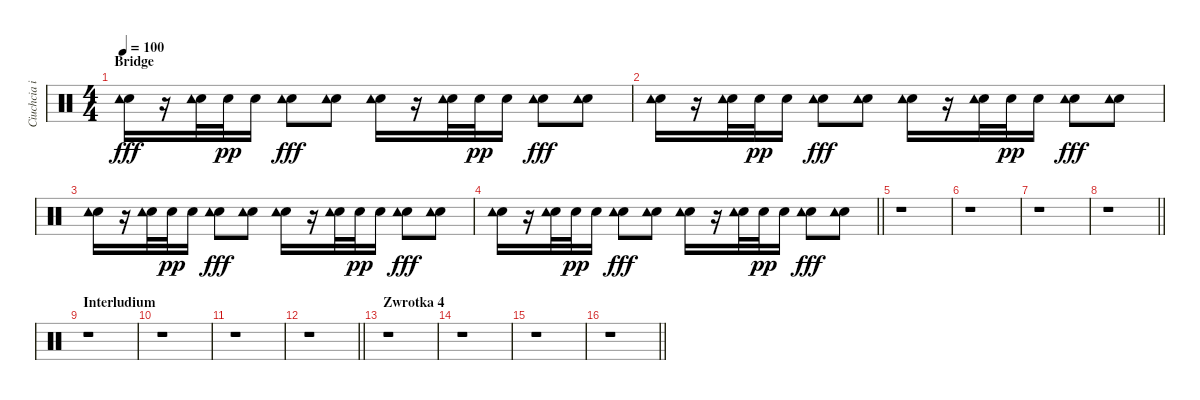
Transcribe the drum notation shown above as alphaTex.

\track ("Ciuchcia i Werbel" "Ciuchcia i") {instrument percussion}
\staff {score}
\articulation defaults
\ts (4 4)
\section ("" "Bridge")
\tempo 100
\clef neutral
\ks c
("Snare (hit) 2" "Tambourine (hit)").16{dy fff} r.16 ("Snare (hit) 2" "Tambourine (hit)").32 "Snare (hit) 2".32{dy pp} "Snare (hit) 2".16 ("Snare (hit) 2" "Tambourine (hit)").8{dy fff} ("Snare (hit) 2" "Tambourine (hit)").8 ("Snare (hit) 2" "Tambourine (hit)").16 r.16 ("Snare (hit) 2" "Tambourine (hit)").32 "Snare (hit) 2".32{dy pp} "Snare (hit) 2".16 ("Snare (hit) 2" "Tambourine (hit)").8{dy fff} ("Snare (hit) 2" "Tambourine (hit)").8 |
("Snare (hit) 2" "Tambourine (hit)").16 r.16 ("Snare (hit) 2" "Tambourine (hit)").32 "Snare (hit) 2".32{dy pp} "Snare (hit) 2".16 ("Snare (hit) 2" "Tambourine (hit)").8{dy fff} ("Snare (hit) 2" "Tambourine (hit)").8 ("Snare (hit) 2" "Tambourine (hit)").16 r.16 ("Snare (hit) 2" "Tambourine (hit)").32 "Snare (hit) 2".32{dy pp} "Snare (hit) 2".16 ("Snare (hit) 2" "Tambourine (hit)").8{dy fff} ("Snare (hit) 2" "Tambourine (hit)").8 |
("Snare (hit) 2" "Tambourine (hit)").16 r.16 ("Snare (hit) 2" "Tambourine (hit)").32 "Snare (hit) 2".32{dy pp} "Snare (hit) 2".16 ("Snare (hit) 2" "Tambourine (hit)").8{dy fff} ("Snare (hit) 2" "Tambourine (hit)").8 ("Snare (hit) 2" "Tambourine (hit)").16 r.16 ("Snare (hit) 2" "Tambourine (hit)").32 "Snare (hit) 2".32{dy pp} "Snare (hit) 2".16 ("Snare (hit) 2" "Tambourine (hit)").8{dy fff} ("Snare (hit) 2" "Tambourine (hit)").8 |
\barLineRight lightlight
("Snare (hit) 2" "Tambourine (hit)").16 r.16 ("Snare (hit) 2" "Tambourine (hit)").32 "Snare (hit) 2".32{dy pp} "Snare (hit) 2".16 ("Snare (hit) 2" "Tambourine (hit)").8{dy fff} ("Snare (hit) 2" "Tambourine (hit)").8 ("Snare (hit) 2" "Tambourine (hit)").16 r.16 ("Snare (hit) 2" "Tambourine (hit)").32 "Snare (hit) 2".32{dy pp} "Snare (hit) 2".16 ("Snare (hit) 2" "Tambourine (hit)").8{dy fff} ("Snare (hit) 2" "Tambourine (hit)").8 |
r.1 |
r.1 |
r.1 |
\barLineRight lightlight
r.1 |
\section ("" "Interludium")
r.1 |
r.1 |
r.1 |
\barLineRight lightlight
r.1 |
\section ("" "Zwrotka 4")
r.1 |
r.1 |
r.1 |
\barLineRight lightlight
r.1
